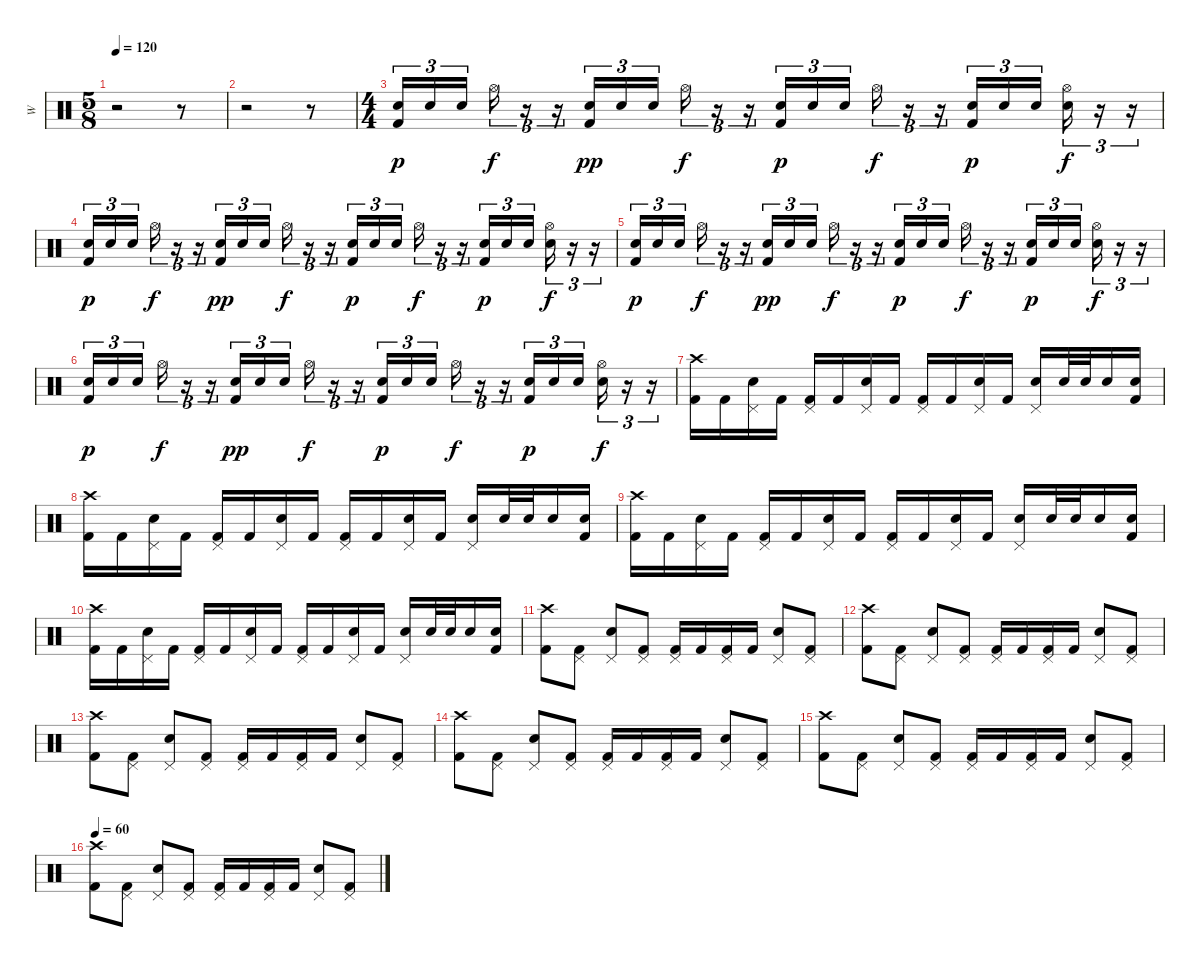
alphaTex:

\track ("W" "W") {instrument percussion}
\staff {score}
\articulation defaults
\ts (5 8)
\tempo 120
\clef neutral
\ks c
r.2{dy f} r.8 |
r.2 r.8 |
\ts (4 4)
("Electric Snare (hit)" "Kick (hit) 2").16{tu (3 2) dy p} "Electric Snare (hit)".16{tu (3 2)} "Electric Snare (hit)".16{tu (3 2)} "Hi-Hat (open)".16{tu (3 2) dy f} r.16{tu (3 2)} r.16{tu (3 2)} ("Electric Snare (hit)" "Kick (hit) 2").16{tu (3 2) dy pp} "Electric Snare (hit)".16{tu (3 2)} "Electric Snare (hit)".16{tu (3 2)} "Hi-Hat (open)".16{tu (3 2) dy f} r.16{tu (3 2)} r.16{tu (3 2)} ("Electric Snare (hit)" "Kick (hit) 2").16{tu (3 2) dy p} "Electric Snare (hit)".16{tu (3 2)} "Electric Snare (hit)".16{tu (3 2)} "Hi-Hat (open)".16{tu (3 2) dy f} r.16{tu (3 2)} r.16{tu (3 2)} ("Electric Snare (hit)" "Kick (hit) 2").16{tu (3 2) dy p} "Electric Snare (hit)".16{tu (3 2)} "Electric Snare (hit)".16{tu (3 2)} ("Hi-Hat (open)" "Electric Snare (hit)").16{tu (3 2) dy f} r.16{tu (3 2)} r.16{tu (3 2)} |
("Electric Snare (hit)" "Kick (hit) 2").16{tu (3 2) dy p} "Electric Snare (hit)".16{tu (3 2)} "Electric Snare (hit)".16{tu (3 2)} "Hi-Hat (open)".16{tu (3 2) dy f} r.16{tu (3 2)} r.16{tu (3 2)} ("Electric Snare (hit)" "Kick (hit) 2").16{tu (3 2) dy pp} "Electric Snare (hit)".16{tu (3 2)} "Electric Snare (hit)".16{tu (3 2)} "Hi-Hat (open)".16{tu (3 2) dy f} r.16{tu (3 2)} r.16{tu (3 2)} ("Electric Snare (hit)" "Kick (hit) 2").16{tu (3 2) dy p} "Electric Snare (hit)".16{tu (3 2)} "Electric Snare (hit)".16{tu (3 2)} "Hi-Hat (open)".16{tu (3 2) dy f} r.16{tu (3 2)} r.16{tu (3 2)} ("Electric Snare (hit)" "Kick (hit) 2").16{tu (3 2) dy p} "Electric Snare (hit)".16{tu (3 2)} "Electric Snare (hit)".16{tu (3 2)} ("Hi-Hat (open)" "Electric Snare (hit)").16{tu (3 2) dy f} r.16{tu (3 2)} r.16{tu (3 2)} |
("Electric Snare (hit)" "Kick (hit) 2").16{tu (3 2) dy p} "Electric Snare (hit)".16{tu (3 2)} "Electric Snare (hit)".16{tu (3 2)} "Hi-Hat (open)".16{tu (3 2) dy f} r.16{tu (3 2)} r.16{tu (3 2)} ("Electric Snare (hit)" "Kick (hit) 2").16{tu (3 2) dy pp} "Electric Snare (hit)".16{tu (3 2)} "Electric Snare (hit)".16{tu (3 2)} "Hi-Hat (open)".16{tu (3 2) dy f} r.16{tu (3 2)} r.16{tu (3 2)} ("Electric Snare (hit)" "Kick (hit) 2").16{tu (3 2) dy p} "Electric Snare (hit)".16{tu (3 2)} "Electric Snare (hit)".16{tu (3 2)} "Hi-Hat (open)".16{tu (3 2) dy f} r.16{tu (3 2)} r.16{tu (3 2)} ("Electric Snare (hit)" "Kick (hit) 2").16{tu (3 2) dy p} "Electric Snare (hit)".16{tu (3 2)} "Electric Snare (hit)".16{tu (3 2)} ("Hi-Hat (open)" "Electric Snare (hit)").16{tu (3 2) dy f} r.16{tu (3 2)} r.16{tu (3 2)} |
("Electric Snare (hit)" "Kick (hit) 2").16{tu (3 2) dy p} "Electric Snare (hit)".16{tu (3 2)} "Electric Snare (hit)".16{tu (3 2)} "Hi-Hat (open)".16{tu (3 2) dy f} r.16{tu (3 2)} r.16{tu (3 2)} ("Electric Snare (hit)" "Kick (hit) 2").16{tu (3 2) dy pp} "Electric Snare (hit)".16{tu (3 2)} "Electric Snare (hit)".16{tu (3 2)} "Hi-Hat (open)".16{tu (3 2) dy f} r.16{tu (3 2)} r.16{tu (3 2)} ("Electric Snare (hit)" "Kick (hit) 2").16{tu (3 2) dy p} "Electric Snare (hit)".16{tu (3 2)} "Electric Snare (hit)".16{tu (3 2)} "Hi-Hat (open)".16{tu (3 2) dy f} r.16{tu (3 2)} r.16{tu (3 2)} ("Electric Snare (hit)" "Kick (hit) 2").16{tu (3 2) dy p} "Electric Snare (hit)".16{tu (3 2)} "Electric Snare (hit)".16{tu (3 2)} ("Hi-Hat (open)" "Electric Snare (hit)").16{tu (3 2) dy f} r.16{tu (3 2)} r.16{tu (3 2)} |
("Crash high (hit)" "Kick (hit) 2").16 "Kick (hit) 2".16 ("Pedal Hi-Hat (hit)" "Electric Snare (hit)").16 "Kick (hit) 2".16 ("Pedal Hi-Hat (hit)" "Kick (hit) 2").16 "Kick (hit) 2".16 ("Pedal Hi-Hat (hit)" "Electric Snare (hit)").16 "Kick (hit) 2".16 ("Pedal Hi-Hat (hit)" "Kick (hit) 2").16 "Kick (hit) 2".16 ("Pedal Hi-Hat (hit)" "Electric Snare (hit)").16 "Kick (hit) 2".16 ("Pedal Hi-Hat (hit)" "Electric Snare (hit)").16 "Electric Snare (hit)".32 "Electric Snare (hit)".32 "Electric Snare (hit)".16 ("Electric Snare (hit)" "Kick (hit) 2").16 |
("Crash high (hit)" "Kick (hit) 2").16 "Kick (hit) 2".16 ("Pedal Hi-Hat (hit)" "Electric Snare (hit)").16 "Kick (hit) 2".16 ("Pedal Hi-Hat (hit)" "Kick (hit) 2").16 "Kick (hit) 2".16 ("Pedal Hi-Hat (hit)" "Electric Snare (hit)").16 "Kick (hit) 2".16 ("Pedal Hi-Hat (hit)" "Kick (hit) 2").16 "Kick (hit) 2".16 ("Pedal Hi-Hat (hit)" "Electric Snare (hit)").16 "Kick (hit) 2".16 ("Pedal Hi-Hat (hit)" "Electric Snare (hit)").16 "Electric Snare (hit)".32 "Electric Snare (hit)".32 "Electric Snare (hit)".16 ("Electric Snare (hit)" "Kick (hit) 2").16 |
("Crash high (hit)" "Kick (hit) 2").16 "Kick (hit) 2".16 ("Pedal Hi-Hat (hit)" "Electric Snare (hit)").16 "Kick (hit) 2".16 ("Pedal Hi-Hat (hit)" "Kick (hit) 2").16 "Kick (hit) 2".16 ("Pedal Hi-Hat (hit)" "Electric Snare (hit)").16 "Kick (hit) 2".16 ("Pedal Hi-Hat (hit)" "Kick (hit) 2").16 "Kick (hit) 2".16 ("Pedal Hi-Hat (hit)" "Electric Snare (hit)").16 "Kick (hit) 2".16 ("Pedal Hi-Hat (hit)" "Electric Snare (hit)").16 "Electric Snare (hit)".32 "Electric Snare (hit)".32 "Electric Snare (hit)".16 ("Electric Snare (hit)" "Kick (hit) 2").16 |
("Crash high (hit)" "Kick (hit) 2").16 "Kick (hit) 2".16 ("Pedal Hi-Hat (hit)" "Electric Snare (hit)").16 "Kick (hit) 2".16 ("Pedal Hi-Hat (hit)" "Kick (hit) 2").16 "Kick (hit) 2".16 ("Pedal Hi-Hat (hit)" "Electric Snare (hit)").16 "Kick (hit) 2".16 ("Pedal Hi-Hat (hit)" "Kick (hit) 2").16 "Kick (hit) 2".16 ("Pedal Hi-Hat (hit)" "Electric Snare (hit)").16 "Kick (hit) 2".16 ("Pedal Hi-Hat (hit)" "Electric Snare (hit)").16 "Electric Snare (hit)".32 "Electric Snare (hit)".32 "Electric Snare (hit)".16 ("Electric Snare (hit)" "Kick (hit) 2").16 |
("Crash high (hit)" "Kick (hit) 2").8 ("Pedal Hi-Hat (hit)" "Kick (hit) 2").8 ("Pedal Hi-Hat (hit)" "Electric Snare (hit)").8 ("Pedal Hi-Hat (hit)" "Kick (hit) 2").8 ("Pedal Hi-Hat (hit)" "Kick (hit) 2").16 "Kick (hit) 2".16 ("Pedal Hi-Hat (hit)" "Kick (hit) 2").16 "Kick (hit) 2".16 ("Pedal Hi-Hat (hit)" "Electric Snare (hit)").8 ("Pedal Hi-Hat (hit)" "Kick (hit) 2").8 |
("Crash high (hit)" "Kick (hit) 2").8 ("Pedal Hi-Hat (hit)" "Kick (hit) 2").8 ("Pedal Hi-Hat (hit)" "Electric Snare (hit)").8 ("Pedal Hi-Hat (hit)" "Kick (hit) 2").8 ("Pedal Hi-Hat (hit)" "Kick (hit) 2").16 "Kick (hit) 2".16 ("Pedal Hi-Hat (hit)" "Kick (hit) 2").16 "Kick (hit) 2".16 ("Pedal Hi-Hat (hit)" "Electric Snare (hit)").8 ("Pedal Hi-Hat (hit)" "Kick (hit) 2").8 |
("Crash high (hit)" "Kick (hit) 2").8 ("Pedal Hi-Hat (hit)" "Kick (hit) 2").8 ("Pedal Hi-Hat (hit)" "Electric Snare (hit)").8 ("Pedal Hi-Hat (hit)" "Kick (hit) 2").8 ("Pedal Hi-Hat (hit)" "Kick (hit) 2").16 "Kick (hit) 2".16 ("Pedal Hi-Hat (hit)" "Kick (hit) 2").16 "Kick (hit) 2".16 ("Pedal Hi-Hat (hit)" "Electric Snare (hit)").8 ("Pedal Hi-Hat (hit)" "Kick (hit) 2").8 |
("Crash high (hit)" "Kick (hit) 2").8 ("Pedal Hi-Hat (hit)" "Kick (hit) 2").8 ("Pedal Hi-Hat (hit)" "Electric Snare (hit)").8 ("Pedal Hi-Hat (hit)" "Kick (hit) 2").8 ("Pedal Hi-Hat (hit)" "Kick (hit) 2").16 "Kick (hit) 2".16 ("Pedal Hi-Hat (hit)" "Kick (hit) 2").16 "Kick (hit) 2".16 ("Pedal Hi-Hat (hit)" "Electric Snare (hit)").8 ("Pedal Hi-Hat (hit)" "Kick (hit) 2").8 |
("Crash high (hit)" "Kick (hit) 2").8 ("Pedal Hi-Hat (hit)" "Kick (hit) 2").8 ("Pedal Hi-Hat (hit)" "Electric Snare (hit)").8 ("Pedal Hi-Hat (hit)" "Kick (hit) 2").8 ("Pedal Hi-Hat (hit)" "Kick (hit) 2").16 "Kick (hit) 2".16 ("Pedal Hi-Hat (hit)" "Kick (hit) 2").16 "Kick (hit) 2".16 ("Pedal Hi-Hat (hit)" "Electric Snare (hit)").8 ("Pedal Hi-Hat (hit)" "Kick (hit) 2").8 |
\tempo 60
("Crash high (hit)" "Kick (hit) 2").8 ("Pedal Hi-Hat (hit)" "Kick (hit) 2").8 ("Pedal Hi-Hat (hit)" "Electric Snare (hit)").8 ("Pedal Hi-Hat (hit)" "Kick (hit) 2").8 ("Pedal Hi-Hat (hit)" "Kick (hit) 2").16 "Kick (hit) 2".16 ("Pedal Hi-Hat (hit)" "Kick (hit) 2").16 "Kick (hit) 2".16 ("Pedal Hi-Hat (hit)" "Electric Snare (hit)").8 ("Pedal Hi-Hat (hit)" "Kick (hit) 2").8
